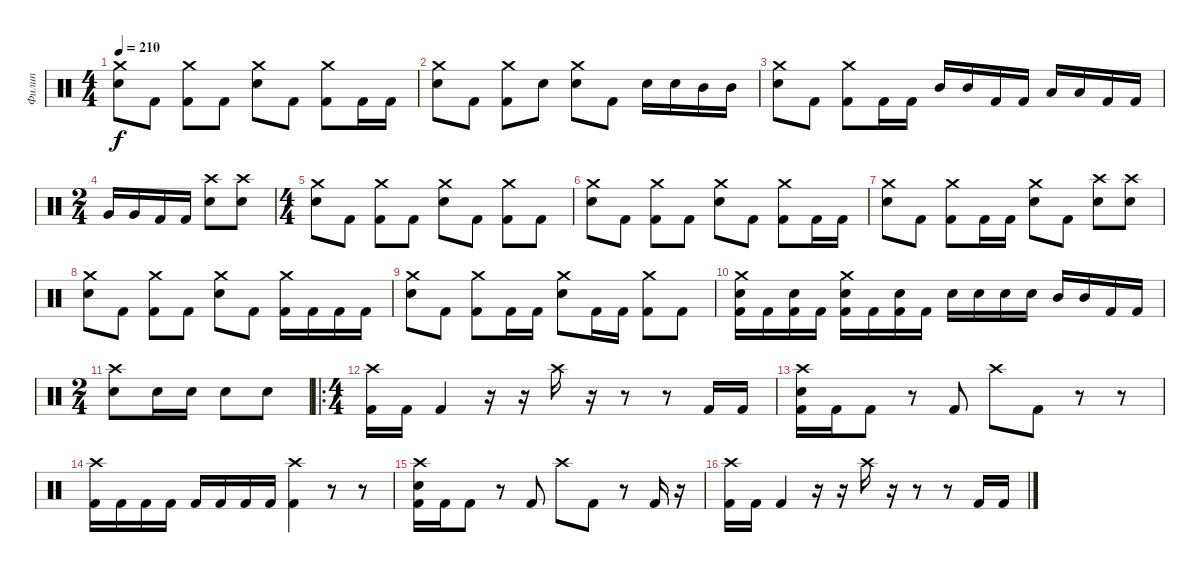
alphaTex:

\track ("Филип" "Филип") {instrument percussion}
\staff {score}
\articulation defaults
\ts (4 4)
\tempo 210
\clef neutral
\ks c
("Crash medium (hit)" "Electric Snare (hit)").8{dy f} "Kick (hit) 2".8 ("Crash medium (hit)" "Kick (hit) 2").8 "Kick (hit) 2".8 ("Crash medium (hit)" "Electric Snare (hit)").8 "Kick (hit) 2".8 ("Crash medium (hit)" "Kick (hit) 2").8 "Kick (hit) 2".16 "Kick (hit) 2".16 |
("Crash medium (hit)" "Electric Snare (hit)").8 "Kick (hit) 2".8 ("Crash medium (hit)" "Kick (hit) 2").8 "Electric Snare (hit)".8 ("Crash medium (hit)" "Electric Snare (hit)").8 "Kick (hit) 2".8 "Electric Snare (hit)".16 "Electric Snare (hit)".16 "Mid Tom (hit)".16 "Mid Tom (hit)".16 |
("Crash medium (hit)" "Electric Snare (hit)").8 "Kick (hit) 2".8 ("Crash medium (hit)" "Kick (hit) 2").8 "Kick (hit) 2".16 "Kick (hit) 2".16 "Mid Tom (hit)".16 "Mid Tom (hit)".16 "Kick (hit) 2".16 "Kick (hit) 2".16 "Low Tom (hit)".16 "Low Tom (hit)".16 "Kick (hit) 2".16 "Kick (hit) 2".16 |
\ts (2 4)
"Very Low Tom (hit)".16 "Very Low Tom (hit)".16 "Kick (hit) 2".16 "Kick (hit) 2".16 ("Crash high (hit)" "Electric Snare (hit)").8 ("Crash high (hit)" "Electric Snare (hit)").8 |
\ts (4 4)
("Crash medium (hit)" "Electric Snare (hit)").8 "Kick (hit) 2".8 ("Crash medium (hit)" "Kick (hit) 2").8 "Kick (hit) 2".8 ("Crash medium (hit)" "Electric Snare (hit)").8 "Kick (hit) 2".8 ("Crash medium (hit)" "Kick (hit) 2").8 "Kick (hit) 2".8 |
("Crash medium (hit)" "Electric Snare (hit)").8 "Kick (hit) 2".8 ("Crash medium (hit)" "Kick (hit) 2").8 "Kick (hit) 2".8 ("Crash medium (hit)" "Electric Snare (hit)").8 "Kick (hit) 2".8 ("Crash medium (hit)" "Kick (hit) 2").8 "Kick (hit) 2".16 "Kick (hit) 2".16 |
("Crash medium (hit)" "Electric Snare (hit)").8 "Kick (hit) 2".8 ("Crash medium (hit)" "Kick (hit) 2").8 "Kick (hit) 2".16 "Kick (hit) 2".16 ("Crash medium (hit)" "Electric Snare (hit)").8 "Kick (hit) 2".8 ("Crash high (hit)" "Electric Snare (hit)").8 ("Crash high (hit)" "Electric Snare (hit)").8 |
("Crash medium (hit)" "Electric Snare (hit)").8 "Kick (hit) 2".8 ("Crash medium (hit)" "Kick (hit) 2").8 "Kick (hit) 2".8 ("Crash medium (hit)" "Electric Snare (hit)").8 "Kick (hit) 2".8 ("Crash medium (hit)" "Kick (hit) 2").16 "Kick (hit) 2".16 "Kick (hit) 2".16 "Kick (hit) 2".16 |
("Crash medium (hit)" "Electric Snare (hit)").8 "Kick (hit) 2".8 ("Crash medium (hit)" "Kick (hit) 2").8 "Kick (hit) 2".16 "Kick (hit) 2".16 ("Crash medium (hit)" "Electric Snare (hit)").8 "Kick (hit) 2".16 "Kick (hit) 2".16 ("Crash medium (hit)" "Kick (hit) 2").8 "Kick (hit) 2".8 |
("Crash medium (hit)" "Electric Snare (hit)" "Kick (hit) 2").16 "Kick (hit) 2".16 ("Electric Snare (hit)" "Kick (hit) 2").16 "Kick (hit) 2".16 ("Crash medium (hit)" "Electric Snare (hit)" "Kick (hit) 2").16 "Kick (hit) 2".16 ("Electric Snare (hit)" "Kick (hit) 2").16 "Kick (hit) 2".16 "Electric Snare (hit)".16 "Electric Snare (hit)".16 "Electric Snare (hit)".16 "Electric Snare (hit)".16 "Mid Tom (hit)".16 "Mid Tom (hit)".16 "Kick (hit) 2".16 "Kick (hit) 2".16 |
\ts (2 4)
("Crash high (hit)" "Electric Snare (hit)").8 "Electric Snare (hit)".16 "Electric Snare (hit)".16 "Electric Snare (hit)".8 "Electric Snare (hit)".8 |
\ro
\ts (4 4)
("Crash high (hit)" "Kick (hit) 2").16 "Kick (hit) 2".16 "Kick (hit) 2".4 r.16 r.16 "Crash high (hit)".16 r.16 r.8 r.8 "Kick (hit) 2".16 "Kick (hit) 2".16 |
("Crash high (hit)" "Electric Snare (hit)" "Kick (hit) 2").16 "Kick (hit) 2".16 "Kick (hit) 2".8 r.8 "Kick (hit) 2".8 "Crash high (hit)".8 "Kick (hit) 2".8 r.8 r.8 |
("Crash high (hit)" "Kick (hit) 2").16 "Kick (hit) 2".16 "Kick (hit) 2".16 "Kick (hit) 2".16 "Kick (hit) 2".16 "Kick (hit) 2".16 "Kick (hit) 2".16 "Kick (hit) 2".16 ("Crash high (hit)" "Kick (hit) 2").4 r.8 r.8 |
("Crash high (hit)" "Electric Snare (hit)" "Kick (hit) 2").16 "Kick (hit) 2".16 "Kick (hit) 2".8 r.8 "Kick (hit) 2".8 "Crash high (hit)".8 "Kick (hit) 2".8 r.8 "Kick (hit) 2".16 r.16 |
("Crash high (hit)" "Kick (hit) 2").16 "Kick (hit) 2".16 "Kick (hit) 2".4 r.16 r.16 "Crash high (hit)".16 r.16 r.8 r.8 "Kick (hit) 2".16 "Kick (hit) 2".16
